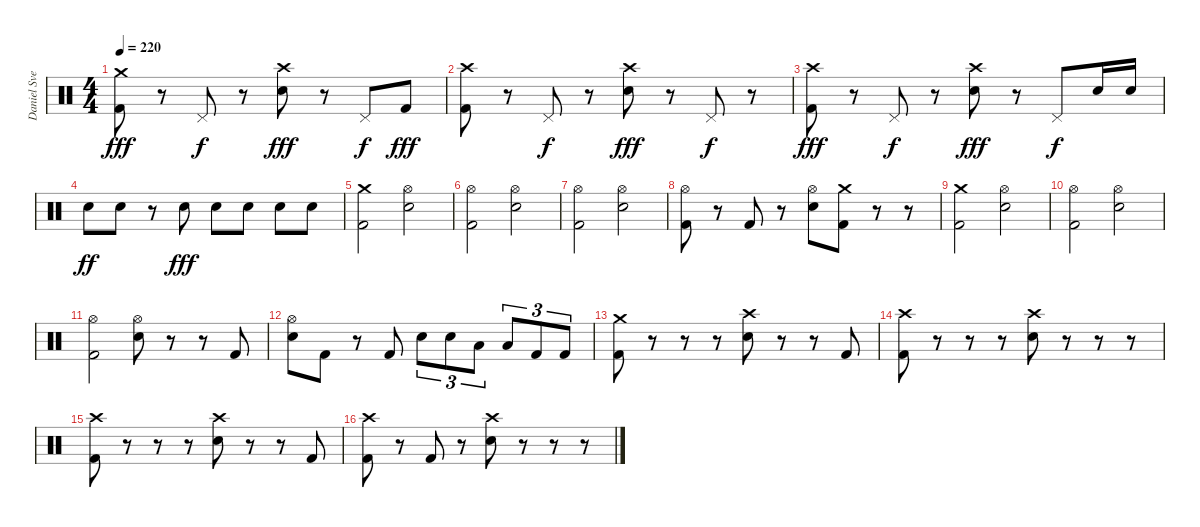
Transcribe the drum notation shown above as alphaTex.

\track ("Daniel Svensson" "Daniel Sve") {instrument percussion}
\staff {score}
\articulation defaults
\ts (4 4)
\tempo 220
\clef neutral
\ks c
("Crash medium (hit)" "Kick (hit) 2").8{dy fff} r.8 "Pedal Hi-Hat (hit)".8{dy f} r.8 ("Crash high (hit)" "Electric Snare (hit)").8{dy fff} r.8 "Pedal Hi-Hat (hit)".8{dy f} "Kick (hit) 2".8{dy fff} |
("Crash high (hit)" "Kick (hit) 2").8 r.8 "Pedal Hi-Hat (hit)".8{dy f} r.8 ("Crash high (hit)" "Electric Snare (hit)").8{dy fff} r.8 "Pedal Hi-Hat (hit)".8{dy f} r.8 |
("Crash high (hit)" "Kick (hit) 2").8{dy fff} r.8 "Pedal Hi-Hat (hit)".8{dy f} r.8 ("Crash high (hit)" "Electric Snare (hit)").8{dy fff} r.8 "Pedal Hi-Hat (hit)".8{dy f} "Electric Snare (hit)".16 "Electric Snare (hit)".16 |
"Electric Snare (hit)".8{dy ff} "Electric Snare (hit)".8 r.8 "Electric Snare (hit)".8{dy fff} "Electric Snare (hit)".8 "Electric Snare (hit)".8 "Electric Snare (hit)".8 "Electric Snare (hit)".8 |
("Crash medium (hit)" "Kick (hit) 2").2 ("Hi-Hat (open)" "Electric Snare (hit)").2 |
("Hi-Hat (open)" "Kick (hit) 2").2 ("Hi-Hat (open)" "Electric Snare (hit)").2 |
("Hi-Hat (open)" "Kick (hit) 2").2 ("Hi-Hat (open)" "Electric Snare (hit)").2 |
("Hi-Hat (open)" "Kick (hit) 2").8 r.8 "Kick (hit) 2".8 r.8 ("Hi-Hat (open)" "Electric Snare (hit)").8 ("Crash medium (hit)" "Kick (hit) 2").8 r.8 r.8 |
("Crash medium (hit)" "Kick (hit) 2").2 ("Hi-Hat (open)" "Electric Snare (hit)").2 |
("Hi-Hat (open)" "Kick (hit) 2").2 ("Hi-Hat (open)" "Electric Snare (hit)").2 |
("Hi-Hat (open)" "Kick (hit) 2").2 ("Hi-Hat (open)" "Electric Snare (hit)").8 r.8 r.8 "Kick (hit) 2".8 |
("Hi-Hat (open)" "Electric Snare (hit)").8 "Kick (hit) 2".8 r.8 "Kick (hit) 2".8 "Electric Snare (hit)".8{tu (3 2)} "Electric Snare (hit)".8{tu (3 2)} "Low Floor Tom (hit)".8{tu (3 2)} "Low Floor Tom (hit)".8{tu (3 2)} "Kick (hit) 2".8{tu (3 2)} "Kick (hit) 2".8{tu (3 2)} |
("Crash medium (hit)" "Kick (hit) 2").8 r.8 r.8 r.8 ("Crash high (hit)" "Electric Snare (hit)").8 r.8 r.8 "Kick (hit) 2".8 |
("Crash high (hit)" "Kick (hit) 2").8 r.8 r.8 r.8 ("Crash high (hit)" "Electric Snare (hit)").8 r.8 r.8 r.8 |
("Crash high (hit)" "Kick (hit) 2").8 r.8 r.8 r.8 ("Crash high (hit)" "Electric Snare (hit)").8 r.8 r.8 "Kick (hit) 2".8 |
("Crash high (hit)" "Kick (hit) 2").8 r.8 "Kick (hit) 2".8 r.8 ("Crash high (hit)" "Electric Snare (hit)").8 r.8 r.8 r.8
